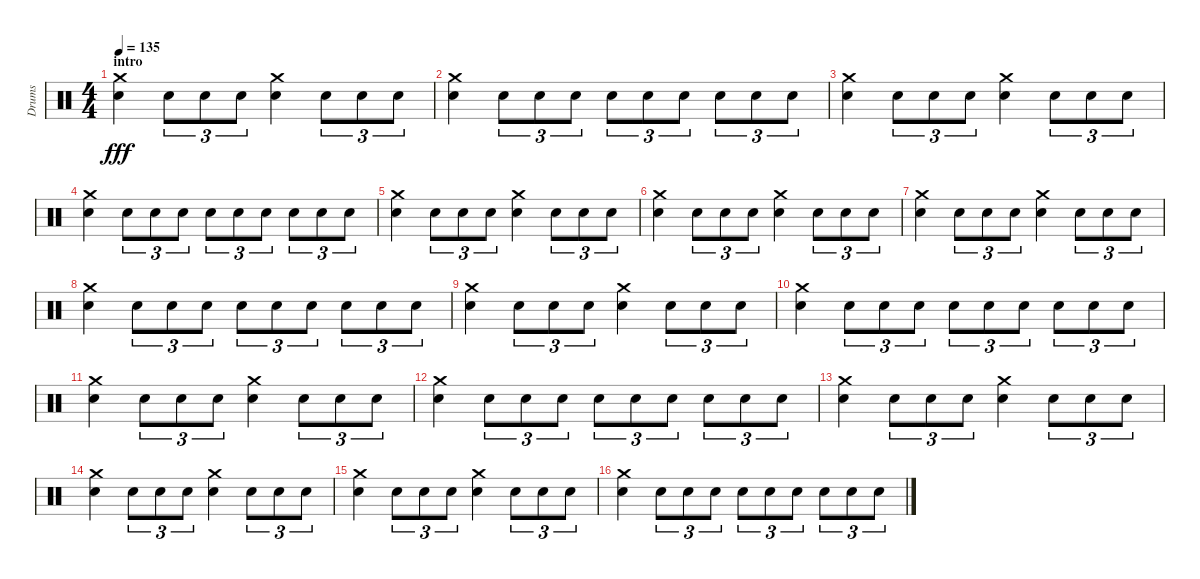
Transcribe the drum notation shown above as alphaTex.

\track ("Drums" "Drums") {instrument percussion}
\staff {score}
\articulation defaults
\ts (4 4)
\section ("" "intro")
\tempo 135
\clef neutral
\ks c
("Electric Snare (hit)" "Crash medium (hit)").4{dy fff} "Electric Snare (hit)".8{tu (3 2)} "Electric Snare (hit)".8{tu (3 2)} "Electric Snare (hit)".8{tu (3 2)} ("Electric Snare (hit)" "Crash medium (hit)").4 "Electric Snare (hit)".8{tu (3 2)} "Electric Snare (hit)".8{tu (3 2)} "Electric Snare (hit)".8{tu (3 2)} |
("Electric Snare (hit)" "Crash medium (hit)").4 "Electric Snare (hit)".8{tu (3 2)} "Electric Snare (hit)".8{tu (3 2)} "Electric Snare (hit)".8{tu (3 2)} "Electric Snare (hit)".8{tu (3 2)} "Electric Snare (hit)".8{tu (3 2)} "Electric Snare (hit)".8{tu (3 2)} "Electric Snare (hit)".8{tu (3 2)} "Electric Snare (hit)".8{tu (3 2)} "Electric Snare (hit)".8{tu (3 2)} |
("Electric Snare (hit)" "Crash medium (hit)").4 "Electric Snare (hit)".8{tu (3 2)} "Electric Snare (hit)".8{tu (3 2)} "Electric Snare (hit)".8{tu (3 2)} ("Electric Snare (hit)" "Crash medium (hit)").4 "Electric Snare (hit)".8{tu (3 2)} "Electric Snare (hit)".8{tu (3 2)} "Electric Snare (hit)".8{tu (3 2)} |
("Electric Snare (hit)" "Crash medium (hit)").4 "Electric Snare (hit)".8{tu (3 2)} "Electric Snare (hit)".8{tu (3 2)} "Electric Snare (hit)".8{tu (3 2)} "Electric Snare (hit)".8{tu (3 2)} "Electric Snare (hit)".8{tu (3 2)} "Electric Snare (hit)".8{tu (3 2)} "Electric Snare (hit)".8{tu (3 2)} "Electric Snare (hit)".8{tu (3 2)} "Electric Snare (hit)".8{tu (3 2)} |
("Electric Snare (hit)" "Crash medium (hit)").4 "Electric Snare (hit)".8{tu (3 2)} "Electric Snare (hit)".8{tu (3 2)} "Electric Snare (hit)".8{tu (3 2)} ("Electric Snare (hit)" "Crash medium (hit)").4 "Electric Snare (hit)".8{tu (3 2)} "Electric Snare (hit)".8{tu (3 2)} "Electric Snare (hit)".8{tu (3 2)} |
("Electric Snare (hit)" "Crash medium (hit)").4 "Electric Snare (hit)".8{tu (3 2)} "Electric Snare (hit)".8{tu (3 2)} "Electric Snare (hit)".8{tu (3 2)} ("Electric Snare (hit)" "Crash medium (hit)").4 "Electric Snare (hit)".8{tu (3 2)} "Electric Snare (hit)".8{tu (3 2)} "Electric Snare (hit)".8{tu (3 2)} |
("Electric Snare (hit)" "Crash medium (hit)").4 "Electric Snare (hit)".8{tu (3 2)} "Electric Snare (hit)".8{tu (3 2)} "Electric Snare (hit)".8{tu (3 2)} ("Electric Snare (hit)" "Crash medium (hit)").4 "Electric Snare (hit)".8{tu (3 2)} "Electric Snare (hit)".8{tu (3 2)} "Electric Snare (hit)".8{tu (3 2)} |
("Electric Snare (hit)" "Crash medium (hit)").4 "Electric Snare (hit)".8{tu (3 2)} "Electric Snare (hit)".8{tu (3 2)} "Electric Snare (hit)".8{tu (3 2)} "Electric Snare (hit)".8{tu (3 2)} "Electric Snare (hit)".8{tu (3 2)} "Electric Snare (hit)".8{tu (3 2)} "Electric Snare (hit)".8{tu (3 2)} "Electric Snare (hit)".8{tu (3 2)} "Electric Snare (hit)".8{tu (3 2)} |
("Electric Snare (hit)" "Crash medium (hit)").4 "Electric Snare (hit)".8{tu (3 2)} "Electric Snare (hit)".8{tu (3 2)} "Electric Snare (hit)".8{tu (3 2)} ("Electric Snare (hit)" "Crash medium (hit)").4 "Electric Snare (hit)".8{tu (3 2)} "Electric Snare (hit)".8{tu (3 2)} "Electric Snare (hit)".8{tu (3 2)} |
("Electric Snare (hit)" "Crash medium (hit)").4 "Electric Snare (hit)".8{tu (3 2)} "Electric Snare (hit)".8{tu (3 2)} "Electric Snare (hit)".8{tu (3 2)} "Electric Snare (hit)".8{tu (3 2)} "Electric Snare (hit)".8{tu (3 2)} "Electric Snare (hit)".8{tu (3 2)} "Electric Snare (hit)".8{tu (3 2)} "Electric Snare (hit)".8{tu (3 2)} "Electric Snare (hit)".8{tu (3 2)} |
("Electric Snare (hit)" "Crash medium (hit)").4 "Electric Snare (hit)".8{tu (3 2)} "Electric Snare (hit)".8{tu (3 2)} "Electric Snare (hit)".8{tu (3 2)} ("Electric Snare (hit)" "Crash medium (hit)").4 "Electric Snare (hit)".8{tu (3 2)} "Electric Snare (hit)".8{tu (3 2)} "Electric Snare (hit)".8{tu (3 2)} |
("Electric Snare (hit)" "Crash medium (hit)").4 "Electric Snare (hit)".8{tu (3 2)} "Electric Snare (hit)".8{tu (3 2)} "Electric Snare (hit)".8{tu (3 2)} "Electric Snare (hit)".8{tu (3 2)} "Electric Snare (hit)".8{tu (3 2)} "Electric Snare (hit)".8{tu (3 2)} "Electric Snare (hit)".8{tu (3 2)} "Electric Snare (hit)".8{tu (3 2)} "Electric Snare (hit)".8{tu (3 2)} |
("Electric Snare (hit)" "Crash medium (hit)").4 "Electric Snare (hit)".8{tu (3 2)} "Electric Snare (hit)".8{tu (3 2)} "Electric Snare (hit)".8{tu (3 2)} ("Electric Snare (hit)" "Crash medium (hit)").4 "Electric Snare (hit)".8{tu (3 2)} "Electric Snare (hit)".8{tu (3 2)} "Electric Snare (hit)".8{tu (3 2)} |
("Electric Snare (hit)" "Crash medium (hit)").4 "Electric Snare (hit)".8{tu (3 2)} "Electric Snare (hit)".8{tu (3 2)} "Electric Snare (hit)".8{tu (3 2)} ("Electric Snare (hit)" "Crash medium (hit)").4 "Electric Snare (hit)".8{tu (3 2)} "Electric Snare (hit)".8{tu (3 2)} "Electric Snare (hit)".8{tu (3 2)} |
("Electric Snare (hit)" "Crash medium (hit)").4 "Electric Snare (hit)".8{tu (3 2)} "Electric Snare (hit)".8{tu (3 2)} "Electric Snare (hit)".8{tu (3 2)} ("Electric Snare (hit)" "Crash medium (hit)").4 "Electric Snare (hit)".8{tu (3 2)} "Electric Snare (hit)".8{tu (3 2)} "Electric Snare (hit)".8{tu (3 2)} |
("Electric Snare (hit)" "Crash medium (hit)").4 "Electric Snare (hit)".8{tu (3 2)} "Electric Snare (hit)".8{tu (3 2)} "Electric Snare (hit)".8{tu (3 2)} "Electric Snare (hit)".8{tu (3 2)} "Electric Snare (hit)".8{tu (3 2)} "Electric Snare (hit)".8{tu (3 2)} "Electric Snare (hit)".8{tu (3 2)} "Electric Snare (hit)".8{tu (3 2)} "Electric Snare (hit)".8{tu (3 2)}
